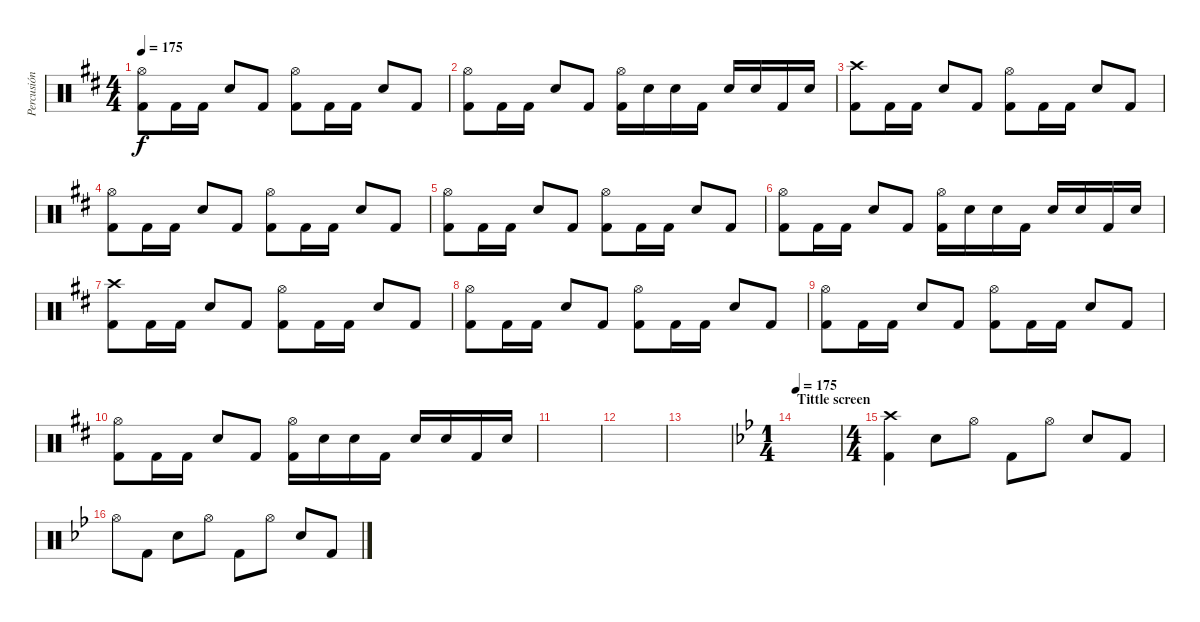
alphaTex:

\track ("Percusión" "Percusión") {instrument percussion}
\staff {score}
\articulation defaults
\ts (4 4)
\tempo 175
\clef neutral
\ks d
("Hi-Hat (open)" "Kick (hit) 2").8{dy f} "Kick (hit) 2".16 "Kick (hit) 2".16 "Electric Snare (hit)".8 "Kick (hit) 2".8 ("Hi-Hat (open)" "Kick (hit) 2").8 "Kick (hit) 2".16 "Kick (hit) 2".16 "Electric Snare (hit)".8 "Kick (hit) 2".8 |
("Hi-Hat (open)" "Kick (hit) 2").8 "Kick (hit) 2".16 "Kick (hit) 2".16 "Electric Snare (hit)".8 "Kick (hit) 2".8 ("Hi-Hat (open)" "Kick (hit) 2").16 "Electric Snare (hit)".16 "Electric Snare (hit)".16 "Kick (hit) 2".16 "Electric Snare (hit)".16 "Electric Snare (hit)".16 "Kick (hit) 2".16 "Electric Snare (hit)".16 |
("Crash high (hit)" "Kick (hit) 2").8 "Kick (hit) 2".16 "Kick (hit) 2".16 "Electric Snare (hit)".8 "Kick (hit) 2".8 ("Hi-Hat (open)" "Kick (hit) 2").8 "Kick (hit) 2".16 "Kick (hit) 2".16 "Electric Snare (hit)".8 "Kick (hit) 2".8 |
("Hi-Hat (open)" "Kick (hit) 2").8 "Kick (hit) 2".16 "Kick (hit) 2".16 "Electric Snare (hit)".8 "Kick (hit) 2".8 ("Hi-Hat (open)" "Kick (hit) 2").8 "Kick (hit) 2".16 "Kick (hit) 2".16 "Electric Snare (hit)".8 "Kick (hit) 2".8 |
("Hi-Hat (open)" "Kick (hit) 2").8 "Kick (hit) 2".16 "Kick (hit) 2".16 "Electric Snare (hit)".8 "Kick (hit) 2".8 ("Hi-Hat (open)" "Kick (hit) 2").8 "Kick (hit) 2".16 "Kick (hit) 2".16 "Electric Snare (hit)".8 "Kick (hit) 2".8 |
("Hi-Hat (open)" "Kick (hit) 2").8 "Kick (hit) 2".16 "Kick (hit) 2".16 "Electric Snare (hit)".8 "Kick (hit) 2".8 ("Hi-Hat (open)" "Kick (hit) 2").16 "Electric Snare (hit)".16 "Electric Snare (hit)".16 "Kick (hit) 2".16 "Electric Snare (hit)".16 "Electric Snare (hit)".16 "Kick (hit) 2".16 "Electric Snare (hit)".16 |
("Crash high (hit)" "Kick (hit) 2").8 "Kick (hit) 2".16 "Kick (hit) 2".16 "Electric Snare (hit)".8 "Kick (hit) 2".8 ("Hi-Hat (open)" "Kick (hit) 2").8 "Kick (hit) 2".16 "Kick (hit) 2".16 "Electric Snare (hit)".8 "Kick (hit) 2".8 |
("Hi-Hat (open)" "Kick (hit) 2").8 "Kick (hit) 2".16 "Kick (hit) 2".16 "Electric Snare (hit)".8 "Kick (hit) 2".8 ("Hi-Hat (open)" "Kick (hit) 2").8 "Kick (hit) 2".16 "Kick (hit) 2".16 "Electric Snare (hit)".8 "Kick (hit) 2".8 |
("Hi-Hat (open)" "Kick (hit) 2").8 "Kick (hit) 2".16 "Kick (hit) 2".16 "Electric Snare (hit)".8 "Kick (hit) 2".8 ("Hi-Hat (open)" "Kick (hit) 2").8 "Kick (hit) 2".16 "Kick (hit) 2".16 "Electric Snare (hit)".8 "Kick (hit) 2".8 |
("Hi-Hat (open)" "Kick (hit) 2").8 "Kick (hit) 2".16 "Kick (hit) 2".16 "Electric Snare (hit)".8 "Kick (hit) 2".8 ("Hi-Hat (open)" "Kick (hit) 2").16 "Electric Snare (hit)".16 "Electric Snare (hit)".16 "Kick (hit) 2".16 "Electric Snare (hit)".16 "Electric Snare (hit)".16 "Kick (hit) 2".16 "Electric Snare (hit)".16 |
|
|
|
\ts (1 4)
\section ("" "Tittle screen")
\tempo 175
\ks bb
|
\ts (4 4)
("Crash high (hit)" "Kick (hit) 2").4 "Electric Snare (hit)".8 "Hi-Hat (open)".8 "Kick (hit) 2".8 "Hi-Hat (open)".8 "Electric Snare (hit)".8 "Kick (hit) 2".8 |
"Hi-Hat (open)".8 "Kick (hit) 2".8 "Electric Snare (hit)".8 "Hi-Hat (open)".8 "Kick (hit) 2".8 "Hi-Hat (open)".8 "Electric Snare (hit)".8 "Kick (hit) 2".8
